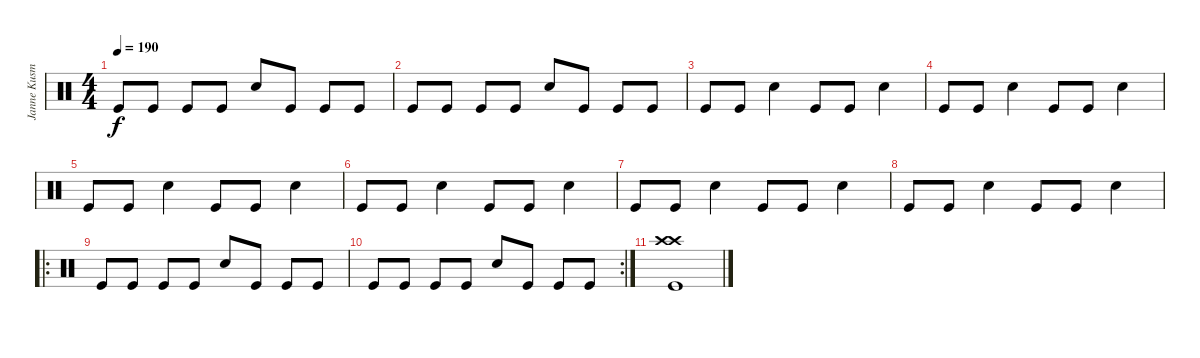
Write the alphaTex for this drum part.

\track ("Janne Kusmin" "Janne Kusm") {instrument percussion}
\staff {score}
\articulation defaults
\ts (4 4)
\tempo 190
\clef neutral
\ks c "Kick (hit)".8{dy f} "Kick (hit)".8 "Kick (hit)".8 "Kick (hit)".8 "Electric Snare (hit)".8 "Kick (hit)".8 "Kick (hit)".8 "Kick (hit)".8
|
"Kick (hit)".8 "Kick (hit)".8 "Kick (hit)".8 "Kick (hit)".8 "Electric Snare (hit)".8 "Kick (hit)".8 "Kick (hit)".8 "Kick (hit)".8 |
"Kick (hit)".8 "Kick (hit)".8 "Electric Snare (hit)".4 "Kick (hit)".8 "Kick (hit)".8 "Electric Snare (hit)".4 |
"Kick (hit)".8 "Kick (hit)".8 "Electric Snare (hit)".4 "Kick (hit)".8 "Kick (hit)".8 "Electric Snare (hit)".4 |
"Kick (hit)".8 "Kick (hit)".8 "Electric Snare (hit)".4 "Kick (hit)".8 "Kick (hit)".8 "Electric Snare (hit)".4 |
"Kick (hit)".8 "Kick (hit)".8 "Electric Snare (hit)".4 "Kick (hit)".8 "Kick (hit)".8 "Electric Snare (hit)".4 |
"Kick (hit)".8 "Kick (hit)".8 "Electric Snare (hit)".4 "Kick (hit)".8 "Kick (hit)".8 "Electric Snare (hit)".4 |
"Kick (hit)".8 "Kick (hit)".8 "Electric Snare (hit)".4 "Kick (hit)".8 "Kick (hit)".8 "Electric Snare (hit)".4 |
\ro "Kick (hit)".8 "Kick (hit)".8 "Kick (hit)".8 "Kick (hit)".8 "Electric Snare (hit)".8 "Kick (hit)".8 "Kick (hit)".8 "Kick (hit)".8
|
\rc 2 "Kick (hit)".8 "Kick (hit)".8 "Kick (hit)".8 "Kick (hit)".8 "Electric Snare (hit)".8 "Kick (hit)".8 "Kick (hit)".8 "Kick (hit)".8
|
("Crash high (hit)" "Crash high (hit)" "Kick (hit)").1
